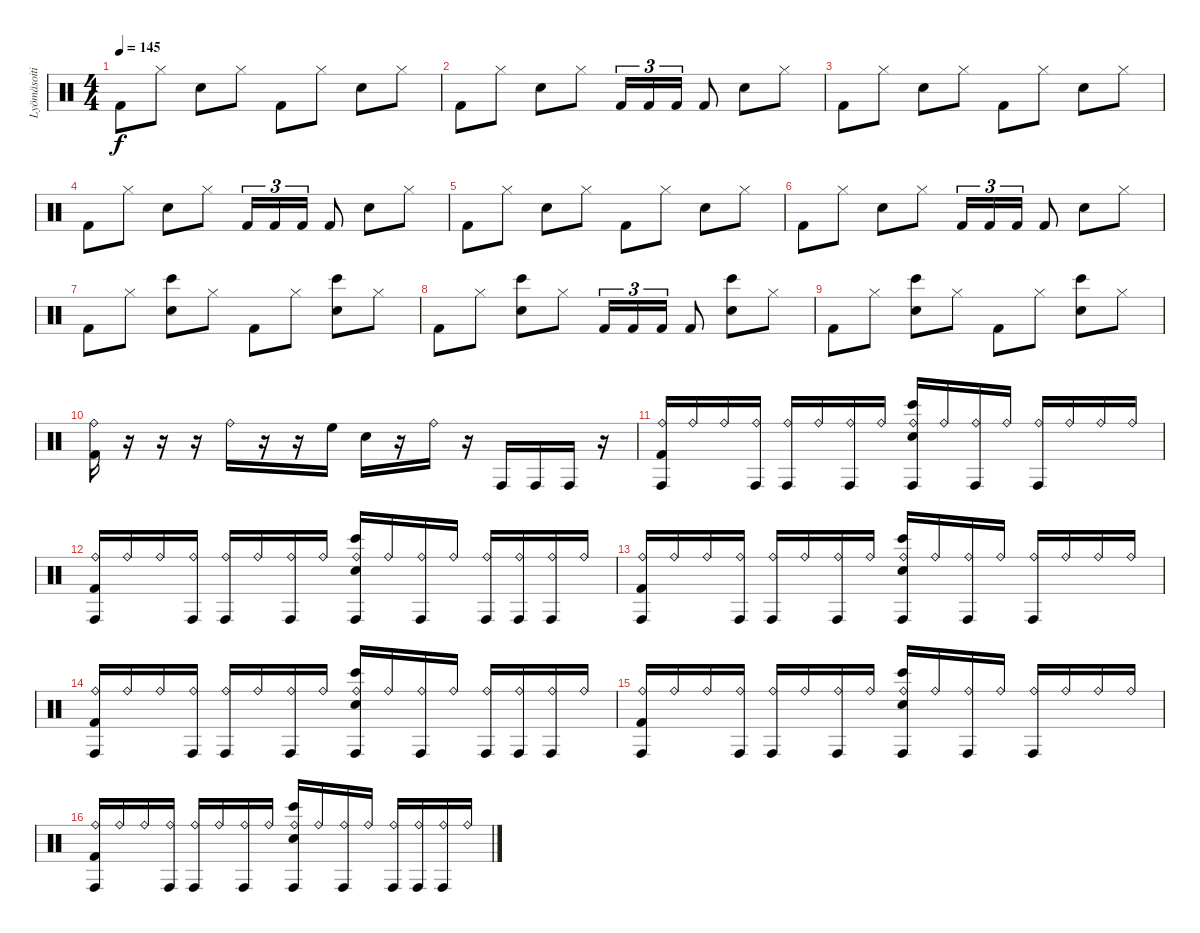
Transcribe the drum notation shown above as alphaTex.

\track ("Lyömäsoitin" "Lyömäsoiti") {instrument percussion}
\staff {score}
\articulation defaults
\ts (4 4)
\tempo 145
\clef neutral
\ks c "Kick (hit) 2".8{dy f} "Hi-Hat (closed)".8 "Electric Snare (hit)".8 "Hi-Hat (closed)".8 "Kick (hit) 2".8 "Hi-Hat (closed)".8 "Electric Snare (hit)".8 "Hi-Hat (closed)".8
|
"Kick (hit) 2".8 "Hi-Hat (closed)".8 "Electric Snare (hit)".8 "Hi-Hat (closed)".8 "Kick (hit) 2".16{tu (3 2)} "Kick (hit) 2".16{tu (3 2)} "Kick (hit) 2".16{tu (3 2)} "Kick (hit) 2".8 "Electric Snare (hit)".8 "Hi-Hat (closed)".8 |
"Kick (hit) 2".8 "Hi-Hat (closed)".8 "Electric Snare (hit)".8 "Hi-Hat (closed)".8 "Kick (hit) 2".8 "Hi-Hat (closed)".8 "Electric Snare (hit)".8 "Hi-Hat (closed)".8 |
"Kick (hit) 2".8 "Hi-Hat (closed)".8 "Electric Snare (hit)".8 "Hi-Hat (closed)".8 "Kick (hit) 2".16{tu (3 2)} "Kick (hit) 2".16{tu (3 2)} "Kick (hit) 2".16{tu (3 2)} "Kick (hit) 2".8 "Electric Snare (hit)".8 "Hi-Hat (closed)".8 |
"Kick (hit) 2".8 "Hi-Hat (closed)".8 "Electric Snare (hit)".8 "Hi-Hat (closed)".8 "Kick (hit) 2".8 "Hi-Hat (closed)".8 "Electric Snare (hit)".8 "Hi-Hat (closed)".8 |
"Kick (hit) 2".8 "Hi-Hat (closed)".8 "Electric Snare (hit)".8 "Hi-Hat (closed)".8 "Kick (hit) 2".16{tu (3 2)} "Kick (hit) 2".16{tu (3 2)} "Kick (hit) 2".16{tu (3 2)} "Kick (hit) 2".8 "Electric Snare (hit)".8 "Hi-Hat (closed)".8 |
"Kick (hit) 2".8 "Hi-Hat (closed)".8 ("Bongo High (hit)" "Electric Snare (hit)").8 "Hi-Hat (closed)".8 "Kick (hit) 2".8 "Hi-Hat (closed)".8 ("Bongo High (hit)" "Electric Snare (hit)").8 "Hi-Hat (closed)".8 |
"Kick (hit) 2".8 "Hi-Hat (closed)".8 ("Bongo High (hit)" "Electric Snare (hit)").8 "Hi-Hat (closed)".8 "Kick (hit) 2".16{tu (3 2)} "Kick (hit) 2".16{tu (3 2)} "Kick (hit) 2".16{tu (3 2)} "Kick (hit) 2".8 ("Bongo High (hit)" "Electric Snare (hit)").8 "Hi-Hat (closed)".8 |
"Kick (hit) 2".8 "Hi-Hat (closed)".8 ("Bongo High (hit)" "Electric Snare (hit)").8 "Hi-Hat (closed)".8 "Kick (hit) 2".8 "Hi-Hat (closed)".8 ("Bongo High (hit)" "Electric Snare (hit)").8 "Hi-Hat (closed)".8 |
("Ride (bell)" "Kick (hit) 2").16 r.16 r.16 r.16 "Ride (bell)".16 r.16 r.16 "High Floor Tom (hit)".16 "Electric Snare (hit)".16 r.16 "Ride (bell)".16 r.16 "Conga high (hit)".16 "Conga high (hit)".16 "Conga high (hit)".16 r.16 |
("Ride (bell)" "Conga high (hit)" "Kick (hit) 2").16 "Ride (bell)".16 "Ride (bell)".16 ("Ride (bell)" "Conga high (hit)").16 ("Ride (bell)" "Conga high (hit)").16 "Ride (bell)".16 ("Ride (bell)" "Conga high (hit)").16 "Ride (bell)".16 ("Ride (bell)" "Conga high (hit)" "Bongo High (hit)" "Electric Snare (hit)").16 "Ride (bell)".16 ("Ride (bell)" "Conga high (hit)").16 "Ride (bell)".16 ("Ride (bell)" "Conga high (hit)").16 "Ride (bell)".16 "Ride (bell)".16 "Ride (bell)".16 |
("Ride (bell)" "Conga high (hit)" "Kick (hit) 2").16 "Ride (bell)".16 "Ride (bell)".16 ("Ride (bell)" "Conga high (hit)").16 ("Ride (bell)" "Conga high (hit)").16 "Ride (bell)".16 ("Ride (bell)" "Conga high (hit)").16 "Ride (bell)".16 ("Ride (bell)" "Conga high (hit)" "Bongo High (hit)" "Electric Snare (hit)").16 "Ride (bell)".16 ("Ride (bell)" "Conga high (hit)").16 "Ride (bell)".16 ("Ride (bell)" "Conga high (hit)").16 ("Ride (bell)" "Conga high (hit)").16 ("Ride (bell)" "Conga high (hit)").16 "Ride (bell)".16 |
("Ride (bell)" "Conga high (hit)" "Kick (hit) 2").16 "Ride (bell)".16 "Ride (bell)".16 ("Ride (bell)" "Conga high (hit)").16 ("Ride (bell)" "Conga high (hit)").16 "Ride (bell)".16 ("Ride (bell)" "Conga high (hit)").16 "Ride (bell)".16 ("Ride (bell)" "Conga high (hit)" "Bongo High (hit)" "Electric Snare (hit)").16 "Ride (bell)".16 ("Ride (bell)" "Conga high (hit)").16 "Ride (bell)".16 ("Ride (bell)" "Conga high (hit)").16 "Ride (bell)".16 "Ride (bell)".16 "Ride (bell)".16 |
("Ride (bell)" "Conga high (hit)" "Kick (hit) 2").16 "Ride (bell)".16 "Ride (bell)".16 ("Ride (bell)" "Conga high (hit)").16 ("Ride (bell)" "Conga high (hit)").16 "Ride (bell)".16 ("Ride (bell)" "Conga high (hit)").16 "Ride (bell)".16 ("Ride (bell)" "Conga high (hit)" "Bongo High (hit)" "Electric Snare (hit)").16 "Ride (bell)".16 ("Ride (bell)" "Conga high (hit)").16 "Ride (bell)".16 ("Ride (bell)" "Conga high (hit)").16 ("Ride (bell)" "Conga high (hit)").16 ("Ride (bell)" "Conga high (hit)").16 "Ride (bell)".16 |
("Ride (bell)" "Conga high (hit)" "Kick (hit) 2").16 "Ride (bell)".16 "Ride (bell)".16 ("Ride (bell)" "Conga high (hit)").16 ("Ride (bell)" "Conga high (hit)").16 "Ride (bell)".16 ("Ride (bell)" "Conga high (hit)").16 "Ride (bell)".16 ("Ride (bell)" "Conga high (hit)" "Bongo High (hit)" "Electric Snare (hit)").16 "Ride (bell)".16 ("Ride (bell)" "Conga high (hit)").16 "Ride (bell)".16 ("Ride (bell)" "Conga high (hit)").16 "Ride (bell)".16 "Ride (bell)".16 "Ride (bell)".16 |
("Ride (bell)" "Conga high (hit)" "Kick (hit) 2").16 "Ride (bell)".16 "Ride (bell)".16 ("Ride (bell)" "Conga high (hit)").16 ("Ride (bell)" "Conga high (hit)").16 "Ride (bell)".16 ("Ride (bell)" "Conga high (hit)").16 "Ride (bell)".16 ("Ride (bell)" "Conga high (hit)" "Bongo High (hit)" "Electric Snare (hit)").16 "Ride (bell)".16 ("Ride (bell)" "Conga high (hit)").16 "Ride (bell)".16 ("Ride (bell)" "Conga high (hit)").16 ("Ride (bell)" "Conga high (hit)").16 ("Ride (bell)" "Conga high (hit)").16 "Ride (bell)".16
